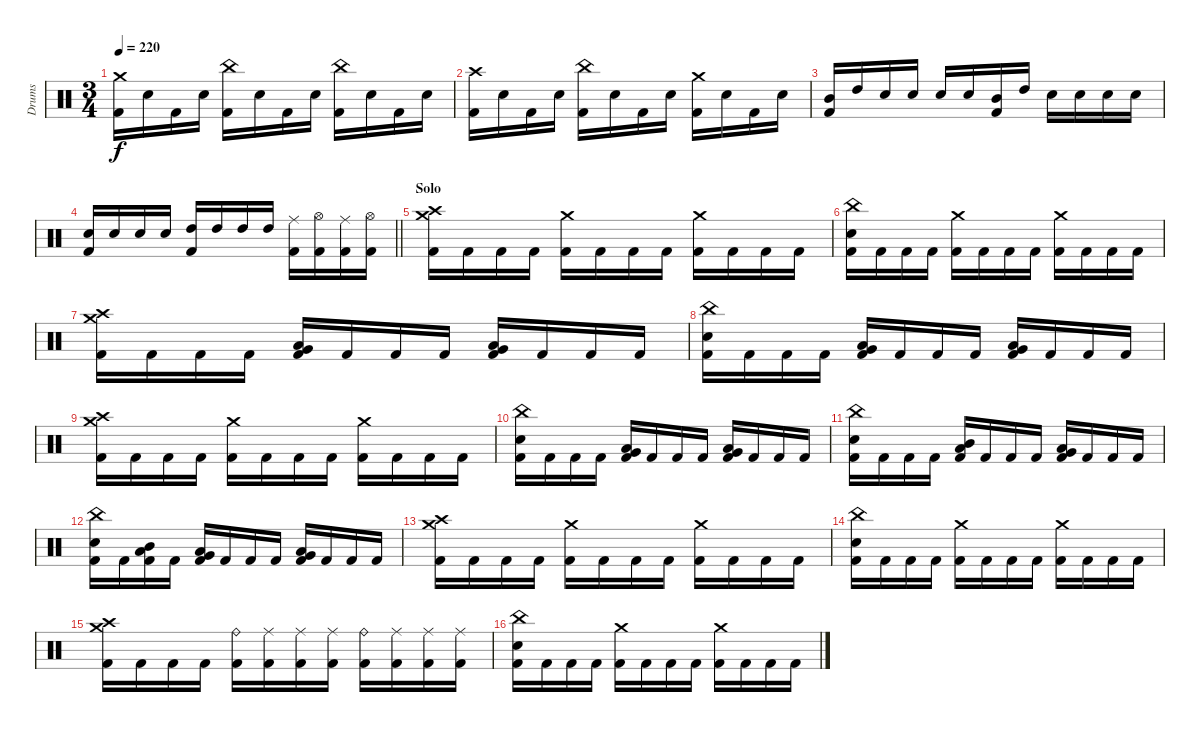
\track ("Drums" "Drums") {instrument percussion}
\staff
\articulation defaults
\ts (3 4)
\tempo 220
\clef neutral
\ks c
("Crash medium (hit)" "Kick (hit) 2").16{dy f} "Electric Snare (hit)".16 "Kick (hit) 2".16 "Electric Snare (hit)".16 ("China (hit)" "Kick (hit) 2").16 "Electric Snare (hit)".16 "Kick (hit) 2".16 "Electric Snare (hit)".16 ("China (hit)" "Kick (hit) 2").16 "Electric Snare (hit)".16 "Kick (hit) 2".16 "Electric Snare (hit)".16 |
("Crash high (hit)" "Kick (hit) 2").16 "Electric Snare (hit)".16 "Kick (hit) 2".16 "Electric Snare (hit)".16 ("China (hit)" "Kick (hit) 2").16 "Electric Snare (hit)".16 "Kick (hit) 2".16 "Electric Snare (hit)".16 ("Crash medium (hit)" "Kick (hit) 2").16 "Electric Snare (hit)".16 "Kick (hit) 2".16 "Electric Snare (hit)".16 |
("Mid Tom (hit)" "Kick (hit) 2").16 "High Tom (hit)".16 "Electric Snare (hit)".16 "Electric Snare (hit)".16 "Electric Snare (hit)".16 "Electric Snare (hit)".16 ("Mid Tom (hit)" "Kick (hit) 2").16 "High Tom (hit)".16 "Electric Snare (hit)".16 "Electric Snare (hit)".16 "Electric Snare (hit)".16 "Electric Snare (hit)".16 |
\barLineRight lightlight
("Electric Snare (hit)" "Kick (hit) 2").16 "Electric Snare (hit)".16 "Electric Snare (hit)".16 "Electric Snare (hit)".16 ("High Tom (hit)" "Kick (hit) 2").16 "High Tom (hit)".16 "High Tom (hit)".16 "High Tom (hit)".16 ("Ride (middle)" "Kick (hit) 2").16 ("Hi-Hat (open)" "Kick (hit) 2").16 ("Ride (middle)" "Kick (hit) 2").16 ("Hi-Hat (open)" "Kick (hit) 2").16 |
\section ("" "Solo")
("Crash high (hit)" "Crash medium (hit)" "Kick (hit) 2").16 "Kick (hit) 2".16 "Kick (hit) 2".16 "Kick (hit) 2".16 ("Crash medium (hit)" "Kick (hit) 2").16 "Kick (hit) 2".16 "Kick (hit) 2".16 "Kick (hit) 2".16 ("Crash medium (hit)" "Kick (hit) 2").16 "Kick (hit) 2".16 "Kick (hit) 2".16 "Kick (hit) 2".16 |
("China (hit)" "Electric Snare (hit)" "Kick (hit) 2").16 "Kick (hit) 2".16 "Kick (hit) 2".16 "Kick (hit) 2".16 ("Crash medium (hit)" "Kick (hit) 2").16 "Kick (hit) 2".16 "Kick (hit) 2".16 "Kick (hit) 2".16 ("Crash medium (hit)" "Kick (hit) 2").16 "Kick (hit) 2".16 "Kick (hit) 2".16 "Kick (hit) 2".16 |
("Crash high (hit)" "Crash medium (hit)" "Kick (hit) 2").16 "Kick (hit) 2".16 "Kick (hit) 2".16 "Kick (hit) 2".16 ("Low Tom (hit)" "Very Low Tom (hit)" "Kick (hit) 2").16 "Kick (hit) 2".16 "Kick (hit) 2".16 "Kick (hit) 2".16 ("Low Tom (hit)" "Very Low Tom (hit)" "Kick (hit) 2").16 "Kick (hit) 2".16 "Kick (hit) 2".16 "Kick (hit) 2".16 |
("China (hit)" "Electric Snare (hit)" "Kick (hit) 2").16 "Kick (hit) 2".16 "Kick (hit) 2".16 "Kick (hit) 2".16 ("Low Tom (hit)" "Very Low Tom (hit)" "Kick (hit) 2").16 "Kick (hit) 2".16 "Kick (hit) 2".16 "Kick (hit) 2".16 ("Low Tom (hit)" "Very Low Tom (hit)" "Kick (hit) 2").16 "Kick (hit) 2".16 "Kick (hit) 2".16 "Kick (hit) 2".16 |
("Crash high (hit)" "Crash medium (hit)" "Kick (hit) 2").16 "Kick (hit) 2".16 "Kick (hit) 2".16 "Kick (hit) 2".16 ("Crash medium (hit)" "Kick (hit) 2").16 "Kick (hit) 2".16 "Kick (hit) 2".16 "Kick (hit) 2".16 ("Crash medium (hit)" "Kick (hit) 2").16 "Kick (hit) 2".16 "Kick (hit) 2".16 "Kick (hit) 2".16 |
("China (hit)" "Electric Snare (hit)" "Kick (hit) 2").16 "Kick (hit) 2".16 "Kick (hit) 2".16 "Kick (hit) 2".16 ("Low Tom (hit)" "Very Low Tom (hit)" "Kick (hit) 2").16 "Kick (hit) 2".16 "Kick (hit) 2".16 "Kick (hit) 2".16 ("Low Tom (hit)" "Very Low Tom (hit)" "Kick (hit) 2").16 "Kick (hit) 2".16 "Kick (hit) 2".16 "Kick (hit) 2".16 |
("China (hit)" "Electric Snare (hit)" "Kick (hit) 2").16 "Kick (hit) 2".16 "Kick (hit) 2".16 "Kick (hit) 2".16 ("Low Tom (hit)" "Mid Tom (hit)" "Kick (hit) 2").16 "Kick (hit) 2".16 "Kick (hit) 2".16 "Kick (hit) 2".16 ("Very Low Tom (hit)" "Low Tom (hit)" "Kick (hit) 2").16 "Kick (hit) 2".16 "Kick (hit) 2".16 "Kick (hit) 2".16 |
("China (hit)" "Electric Snare (hit)" "Kick (hit) 2").16 "Kick (hit) 2".16 ("Low Tom (hit)" "Mid Tom (hit)" "Kick (hit) 2").16 "Kick (hit) 2".16 ("Very Low Tom (hit)" "Low Tom (hit)" "Kick (hit) 2").16 "Kick (hit) 2".16 "Kick (hit) 2".16 "Kick (hit) 2".16 ("Low Floor Tom (hit)" "Very Low Tom (hit)" "Kick (hit) 2").16 "Kick (hit) 2".16 "Kick (hit) 2".16 "Kick (hit) 2".16 |
("Crash high (hit)" "Crash medium (hit)" "Kick (hit) 2").16 "Kick (hit) 2".16 "Kick (hit) 2".16 "Kick (hit) 2".16 ("Crash medium (hit)" "Kick (hit) 2").16 "Kick (hit) 2".16 "Kick (hit) 2".16 "Kick (hit) 2".16 ("Crash medium (hit)" "Kick (hit) 2").16 "Kick (hit) 2".16 "Kick (hit) 2".16 "Kick (hit) 2".16 |
("China (hit)" "Electric Snare (hit)" "Kick (hit) 2").16 "Kick (hit) 2".16 "Kick (hit) 2".16 "Kick (hit) 2".16 ("Crash medium (hit)" "Kick (hit) 2").16 "Kick (hit) 2".16 "Kick (hit) 2".16 "Kick (hit) 2".16 ("Crash medium (hit)" "Kick (hit) 2").16 "Kick (hit) 2".16 "Kick (hit) 2".16 "Kick (hit) 2".16 |
("Crash high (hit)" "Crash medium (hit)" "Kick (hit) 2").16 "Kick (hit) 2".16 "Kick (hit) 2".16 "Kick (hit) 2".16 ("Ride (bell)" "Kick (hit) 2").16 ("Ride (middle)" "Kick (hit) 2").16 ("Ride (middle)" "Kick (hit) 2").16 ("Ride (middle)" "Kick (hit) 2").16 ("Ride (bell)" "Kick (hit) 2").16 ("Ride (middle)" "Kick (hit) 2").16 ("Ride (middle)" "Kick (hit) 2").16 ("Ride (middle)" "Kick (hit) 2").16 |
("China (hit)" "Electric Snare (hit)" "Kick (hit) 2").16 "Kick (hit) 2".16 "Kick (hit) 2".16 "Kick (hit) 2".16 ("Crash medium (hit)" "Kick (hit) 2").16 "Kick (hit) 2".16 "Kick (hit) 2".16 "Kick (hit) 2".16 ("Crash medium (hit)" "Kick (hit) 2").16 "Kick (hit) 2".16 "Kick (hit) 2".16 "Kick (hit) 2".16
